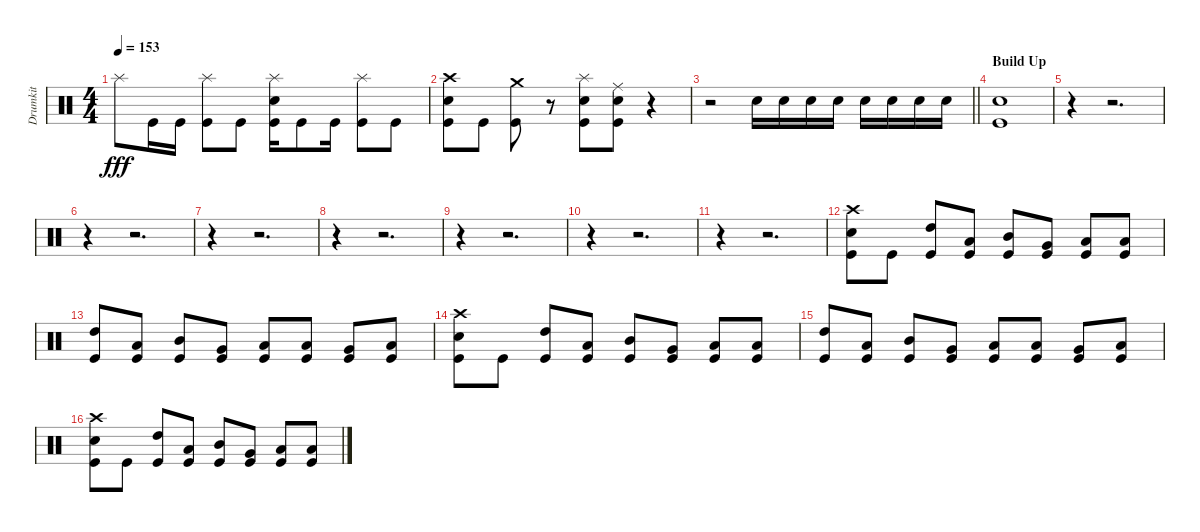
\track ("Drumkit" "Drumkit") {instrument percussion}
\staff {score}
\articulation defaults
\ts (4 4)
\tempo 153
\clef neutral
\ks c "Splash (hit)".8{dy fff} "Kick (hit)".16 "Kick (hit)".16
("Splash (hit)" "Kick (hit)").8 "Kick (hit)".8 ("Snare (hit) 2" "Splash (hit)" "Kick (hit)").16 "Kick (hit)".8 "Kick (hit)".16 ("Splash (hit)" "Kick (hit)").8 "Kick (hit)".8 |
("Crash high (hit)" "Snare (hit) 2" "Kick (hit)").8 "Kick (hit)".8 ("Crash medium (hit)" "Kick (hit)").8 r.8 ("Snare (hit) 2" "Splash (hit)" "Kick (hit)").8 ("Snare (hit) 2" "Ride (middle)" "Kick (hit)").8 r.4 |
\barLineRight lightlight
r.2 "Snare (hit) 2".16 "Snare (hit) 2".16 "Snare (hit) 2".16 "Snare (hit) 2".16 "Snare (hit) 2".16 "Snare (hit) 2".16 "Snare (hit) 2".16 "Snare (hit) 2".16 |
\section ("" "Build Up")
("Snare (hit) 2" "Kick (hit)").1 |
r.4 r.2{d} |
r.4 r.2{d} |
r.4 r.2{d} |
r.4 r.2{d} |
r.4 r.2{d} |
r.4 r.2{d} |
r.4 r.2{d} |
("Crash high (hit)" "Snare (hit) 2" "Kick (hit)").8 "Kick (hit)".8 ("High Tom (hit)" "Kick (hit)").8 ("Low Tom (hit)" "Kick (hit)").8 ("Mid Tom (hit)" "Kick (hit)").8 ("Very Low Tom (hit)" "Kick (hit)").8 ("Low Tom (hit)" "Kick (hit)").8 ("Low Floor Tom (hit)" "Kick (hit)").8 |
("High Tom (hit)" "Kick (hit)").8 ("Low Tom (hit)" "Kick (hit)").8 ("Mid Tom (hit)" "Kick (hit)").8 ("Very Low Tom (hit)" "Kick (hit)").8 ("Low Tom (hit)" "Kick (hit)").8 ("Low Floor Tom (hit)" "Kick (hit)").8 ("Very Low Tom (hit)" "Kick (hit)").8 ("Low Floor Tom (hit)" "Kick (hit)").8 |
("Crash high (hit)" "Snare (hit) 2" "Kick (hit)").8 "Kick (hit)".8 ("High Tom (hit)" "Kick (hit)").8 ("Low Tom (hit)" "Kick (hit)").8 ("Mid Tom (hit)" "Kick (hit)").8 ("Very Low Tom (hit)" "Kick (hit)").8 ("Low Tom (hit)" "Kick (hit)").8 ("Low Floor Tom (hit)" "Kick (hit)").8 |
("High Tom (hit)" "Kick (hit)").8 ("Low Tom (hit)" "Kick (hit)").8 ("Mid Tom (hit)" "Kick (hit)").8 ("Very Low Tom (hit)" "Kick (hit)").8 ("Low Tom (hit)" "Kick (hit)").8 ("Low Floor Tom (hit)" "Kick (hit)").8 ("Very Low Tom (hit)" "Kick (hit)").8 ("Low Floor Tom (hit)" "Kick (hit)").8 |
("Crash high (hit)" "Snare (hit) 2" "Kick (hit)").8 "Kick (hit)".8 ("High Tom (hit)" "Kick (hit)").8 ("Low Tom (hit)" "Kick (hit)").8 ("Mid Tom (hit)" "Kick (hit)").8 ("Very Low Tom (hit)" "Kick (hit)").8 ("Low Tom (hit)" "Kick (hit)").8 ("Low Floor Tom (hit)" "Kick (hit)").8
